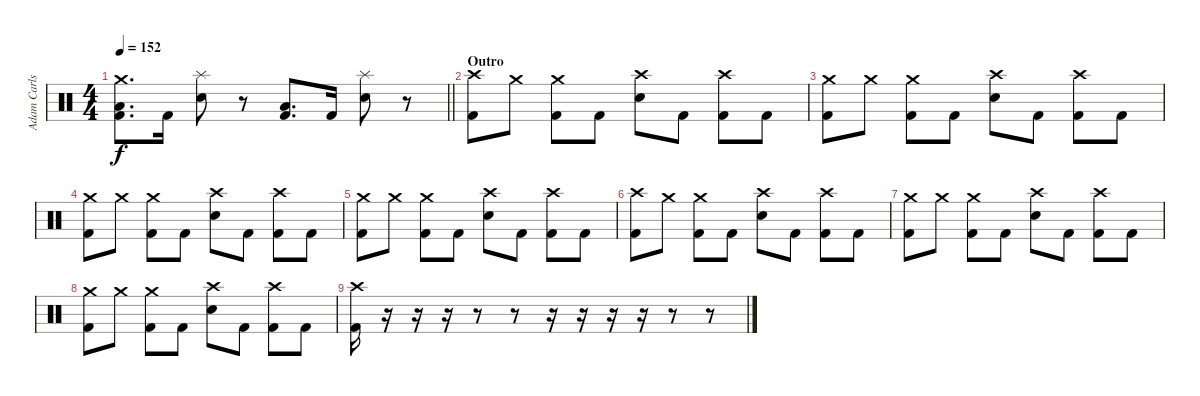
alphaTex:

\track ("Adam Carlson" "Adam Carls") {instrument percussion}
\staff {score}
\articulation defaults
\ts (4 4)
\tempo 152
\clef neutral
\barLineRight lightlight
\ks c
("Crash medium (hit)" "Kick (hit) 2" "Low Floor Tom (hit)").8{d dy f} "Kick (hit) 2".16 ("Splash (hit)" "Electric Snare (hit)").8 r.8 ("Kick (hit) 2" "Low Floor Tom (hit)").8{d} "Kick (hit) 2".16 ("Splash (hit)" "Electric Snare (hit)").8 r.8 |
\section ("" "Outro")
("Crash high (hit)" "Kick (hit) 2").8 "Crash medium (hit)".8 ("Crash medium (hit)" "Kick (hit) 2").8 "Kick (hit) 2".8 ("Electric Snare (hit)" "Crash high (hit)").8 "Kick (hit) 2".8 ("Kick (hit) 2" "Crash high (hit)").8 "Kick (hit) 2".8 |
("Crash medium (hit)" "Kick (hit) 2").8 "Crash medium (hit)".8 ("Crash medium (hit)" "Kick (hit) 2").8 "Kick (hit) 2".8 ("Electric Snare (hit)" "Crash high (hit)").8 "Kick (hit) 2".8 ("Kick (hit) 2" "Crash high (hit)").8 "Kick (hit) 2".8 |
("Crash medium (hit)" "Kick (hit) 2").8 "Crash medium (hit)".8 ("Crash medium (hit)" "Kick (hit) 2").8 "Kick (hit) 2".8 ("Electric Snare (hit)" "Crash high (hit)").8 "Kick (hit) 2".8 ("Kick (hit) 2" "Crash high (hit)").8 "Kick (hit) 2".8 |
("Crash medium (hit)" "Kick (hit) 2").8 "Crash medium (hit)".8 ("Crash medium (hit)" "Kick (hit) 2").8 "Kick (hit) 2".8 ("Electric Snare (hit)" "Crash high (hit)").8 "Kick (hit) 2".8 ("Kick (hit) 2" "Crash high (hit)").8 "Kick (hit) 2".8 |
("Crash high (hit)" "Kick (hit) 2").8 "Crash medium (hit)".8 ("Crash medium (hit)" "Kick (hit) 2").8 "Kick (hit) 2".8 ("Electric Snare (hit)" "Crash high (hit)").8 "Kick (hit) 2".8 ("Kick (hit) 2" "Crash high (hit)").8 "Kick (hit) 2".8 |
("Crash medium (hit)" "Kick (hit) 2").8 "Crash medium (hit)".8 ("Crash medium (hit)" "Kick (hit) 2").8 "Kick (hit) 2".8 ("Electric Snare (hit)" "Crash high (hit)").8 "Kick (hit) 2".8 ("Kick (hit) 2" "Crash high (hit)").8 "Kick (hit) 2".8 |
("Crash medium (hit)" "Kick (hit) 2").8 "Crash medium (hit)".8 ("Crash medium (hit)" "Kick (hit) 2").8 "Kick (hit) 2".8 ("Electric Snare (hit)" "Crash high (hit)").8 "Kick (hit) 2".8 ("Kick (hit) 2" "Crash high (hit)").8 "Kick (hit) 2".8 |
("Crash high (hit)" "Kick (hit) 2").16 r.16 r.16 r.16 r.8 r.8 r.16 r.16 r.16 r.16 r.8 r.8
